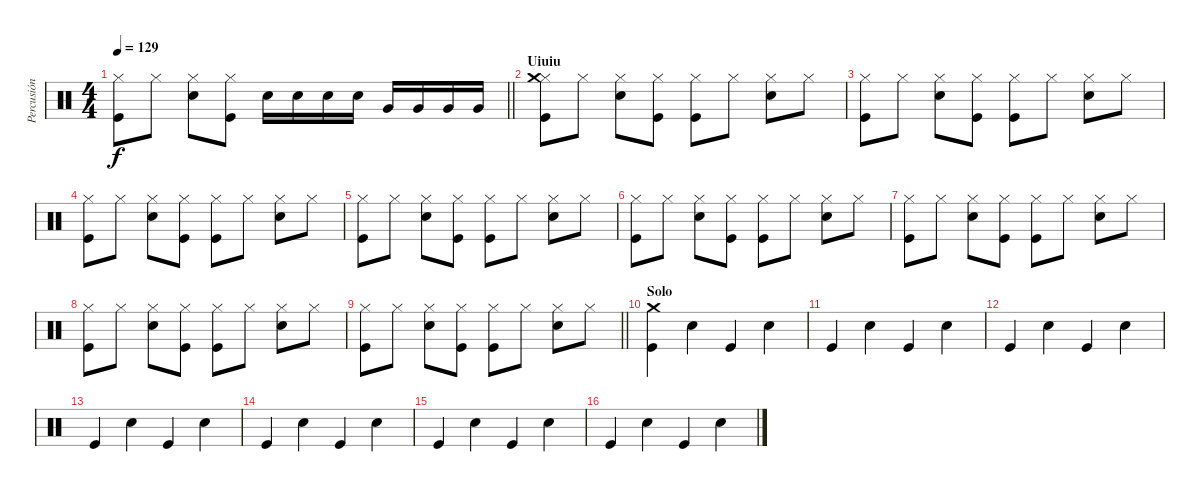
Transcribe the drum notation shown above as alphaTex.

\track ("Percusión" "Percusión") {instrument percussion}
\staff {score}
\articulation defaults
\ts (4 4)
\tempo 129
\clef neutral
\barLineRight lightlight
\ks c
("Hi-Hat (closed)" "Kick (hit)").8{dy f} "Hi-Hat (closed)".8 ("Hi-Hat (closed)" "Electric Snare (hit)").8 ("Hi-Hat (closed)" "Kick (hit)").8 "Electric Snare (hit)".16 "Electric Snare (hit)".16 "Electric Snare (hit)".16 "Electric Snare (hit)".16 "Very Low Tom (hit)".16 "Very Low Tom (hit)".16 "Very Low Tom (hit)".16 "Very Low Tom (hit)".16 |
\section ("" "Uiuiu")
("Hi-Hat (closed)" "Kick (hit)" "Crash medium (hit)").8 "Hi-Hat (closed)".8 ("Hi-Hat (closed)" "Electric Snare (hit)").8 ("Hi-Hat (closed)" "Kick (hit)").8 ("Hi-Hat (closed)" "Kick (hit)").8 "Hi-Hat (closed)".8 ("Hi-Hat (closed)" "Electric Snare (hit)").8 "Hi-Hat (closed)".8 |
("Hi-Hat (closed)" "Kick (hit)").8 "Hi-Hat (closed)".8 ("Hi-Hat (closed)" "Electric Snare (hit)").8 ("Hi-Hat (closed)" "Kick (hit)").8 ("Hi-Hat (closed)" "Kick (hit)").8 "Hi-Hat (closed)".8 ("Hi-Hat (closed)" "Electric Snare (hit)").8 "Hi-Hat (closed)".8 |
("Hi-Hat (closed)" "Kick (hit)").8 "Hi-Hat (closed)".8 ("Hi-Hat (closed)" "Electric Snare (hit)").8 ("Hi-Hat (closed)" "Kick (hit)").8 ("Hi-Hat (closed)" "Kick (hit)").8 "Hi-Hat (closed)".8 ("Hi-Hat (closed)" "Electric Snare (hit)").8 "Hi-Hat (closed)".8 |
("Hi-Hat (closed)" "Kick (hit)").8 "Hi-Hat (closed)".8 ("Hi-Hat (closed)" "Electric Snare (hit)").8 ("Hi-Hat (closed)" "Kick (hit)").8 ("Hi-Hat (closed)" "Kick (hit)").8 "Hi-Hat (closed)".8 ("Hi-Hat (closed)" "Electric Snare (hit)").8 "Hi-Hat (closed)".8 |
("Hi-Hat (closed)" "Kick (hit)").8 "Hi-Hat (closed)".8 ("Hi-Hat (closed)" "Electric Snare (hit)").8 ("Hi-Hat (closed)" "Kick (hit)").8 ("Hi-Hat (closed)" "Kick (hit)").8 "Hi-Hat (closed)".8 ("Hi-Hat (closed)" "Electric Snare (hit)").8 "Hi-Hat (closed)".8 |
("Hi-Hat (closed)" "Kick (hit)").8 "Hi-Hat (closed)".8 ("Hi-Hat (closed)" "Electric Snare (hit)").8 ("Hi-Hat (closed)" "Kick (hit)").8 ("Hi-Hat (closed)" "Kick (hit)").8 "Hi-Hat (closed)".8 ("Hi-Hat (closed)" "Electric Snare (hit)").8 "Hi-Hat (closed)".8 |
("Hi-Hat (closed)" "Kick (hit)").8 "Hi-Hat (closed)".8 ("Hi-Hat (closed)" "Electric Snare (hit)").8 ("Hi-Hat (closed)" "Kick (hit)").8 ("Hi-Hat (closed)" "Kick (hit)").8 "Hi-Hat (closed)".8 ("Hi-Hat (closed)" "Electric Snare (hit)").8 "Hi-Hat (closed)".8 |
\barLineRight lightlight
("Hi-Hat (closed)" "Kick (hit)").8 "Hi-Hat (closed)".8 ("Hi-Hat (closed)" "Electric Snare (hit)").8 ("Hi-Hat (closed)" "Kick (hit)").8 ("Hi-Hat (closed)" "Kick (hit)").8 "Hi-Hat (closed)".8 ("Hi-Hat (closed)" "Electric Snare (hit)").8 "Hi-Hat (closed)".8 |
\section ("" "Solo")
("Kick (hit)" "Crash medium (hit)").4 "Electric Snare (hit)".4 "Kick (hit)".4 "Electric Snare (hit)".4 |
"Kick (hit)".4 "Electric Snare (hit)".4 "Kick (hit)".4 "Electric Snare (hit)".4 |
"Kick (hit)".4 "Electric Snare (hit)".4 "Kick (hit)".4 "Electric Snare (hit)".4 |
"Kick (hit)".4 "Electric Snare (hit)".4 "Kick (hit)".4 "Electric Snare (hit)".4 |
"Kick (hit)".4 "Electric Snare (hit)".4 "Kick (hit)".4 "Electric Snare (hit)".4 |
"Kick (hit)".4 "Electric Snare (hit)".4 "Kick (hit)".4 "Electric Snare (hit)".4 |
"Kick (hit)".4 "Electric Snare (hit)".4 "Kick (hit)".4 "Electric Snare (hit)".4
